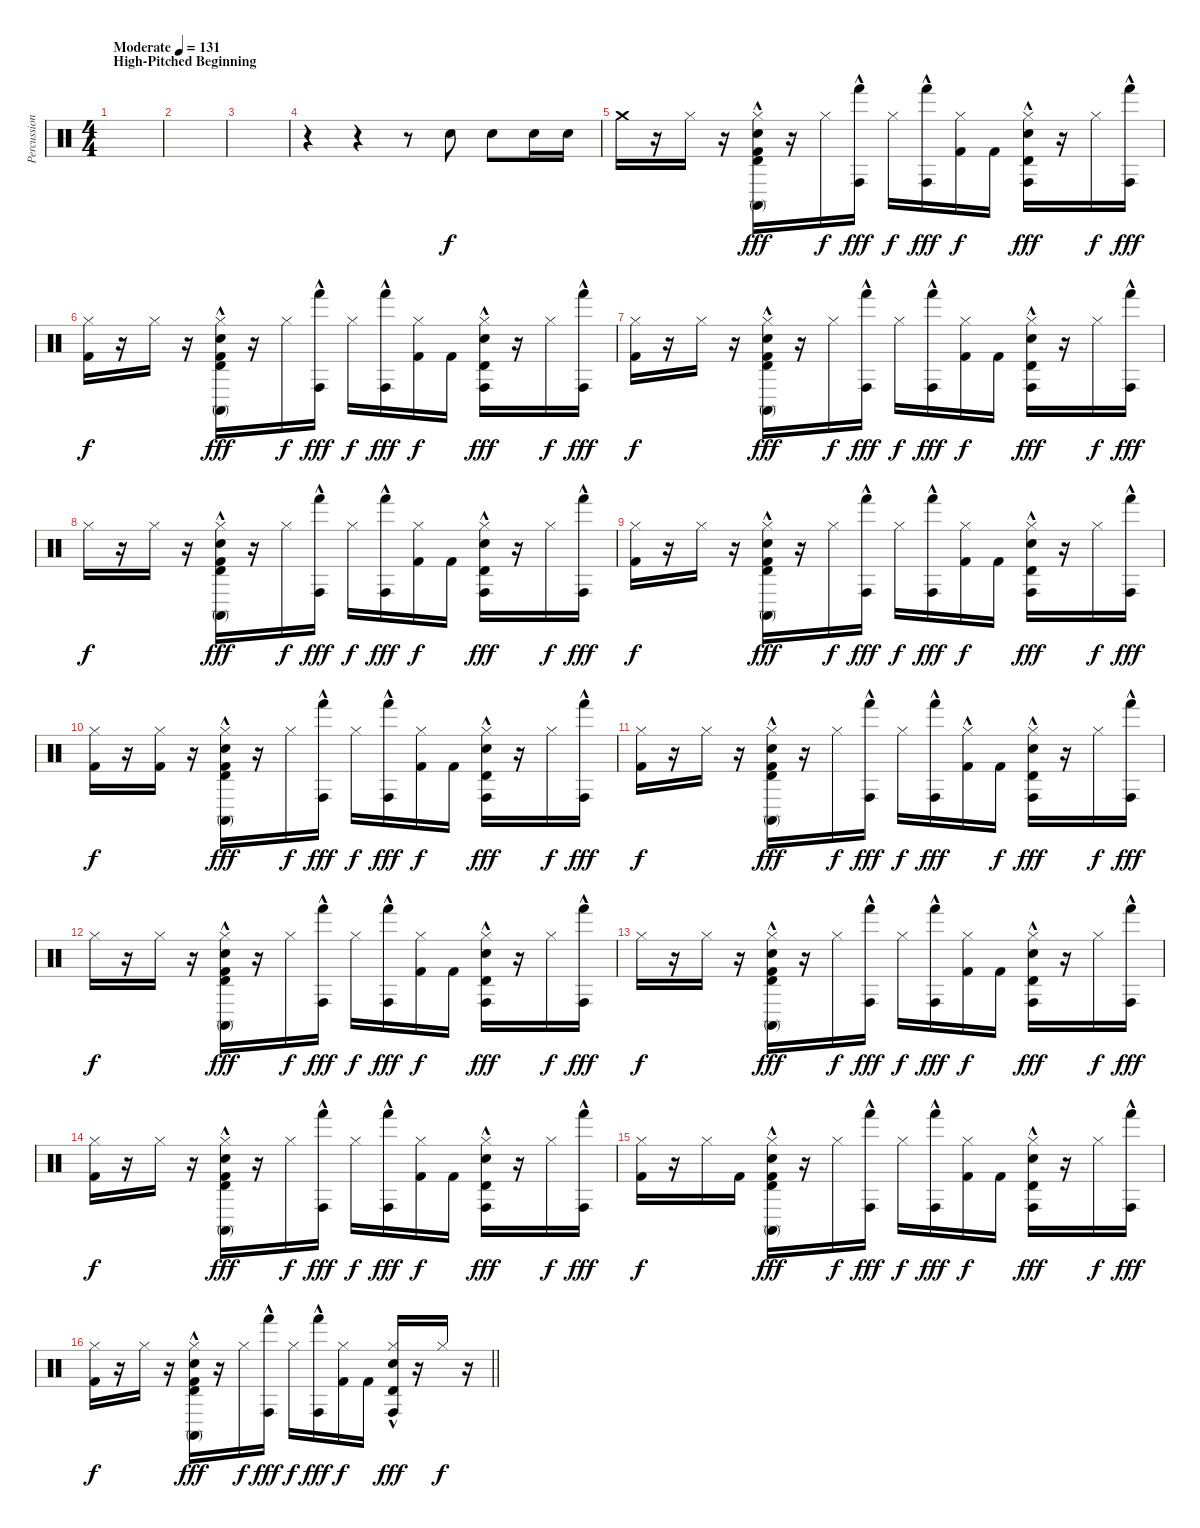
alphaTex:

\track ("Percussion" "Percussion") {instrument percussion}
\staff {score}
\articulation defaults
\ts (4 4)
\section ("" "High-Pitched Beginning")
\tempo (131 "Moderate")
\clef neutral
\ks c
|
|
|
r.4 r.4 r.8 "Electric Snare (hit)".8 "Electric Snare (hit)".8 "Electric Snare (hit)".16 "Electric Snare (hit)".16 |
"Crash medium (hit)".16 r.16 "Hi-Hat (closed)".16 r.16 ("Hi-Hat (closed)" "Conga high (mute)"{hac} "Timbale high (hit)" "Electric Snare (hit)" "Kick (hit) 2").16{dy fff} r.16 "Hi-Hat (closed)".16{dy f} ("Conga high (hit)"{hac} "Hand (hit)"{hac}).16{dy fff} "Hi-Hat (closed)".16{dy f} ("Conga high (hit)"{hac} "Hand (hit)"{hac}).16{dy fff} ("Hi-Hat (closed)" "Kick (hit) 2").16{dy f} "Kick (hit) 2".16 ("Hi-Hat (closed)" "Conga high (hit)"{hac} "Timbale high (hit)" "Electric Snare (hit)").16{dy fff} r.16 "Hi-Hat (closed)".16{dy f} ("Conga high (hit)"{hac} "Hand (hit)"{hac}).16{dy fff} |
("Hi-Hat (closed)" "Kick (hit) 2").16{dy f} r.16 "Hi-Hat (closed)".16 r.16 ("Hi-Hat (closed)" "Conga high (mute)"{hac} "Timbale high (hit)" "Electric Snare (hit)" "Kick (hit) 2").16{dy fff} r.16 "Hi-Hat (closed)".16{dy f} ("Conga high (hit)"{hac} "Hand (hit)"{hac}).16{dy fff} "Hi-Hat (closed)".16{dy f} ("Conga high (hit)"{hac} "Hand (hit)"{hac}).16{dy fff} ("Hi-Hat (closed)" "Kick (hit) 2").16{dy f} "Kick (hit) 2".16 ("Hi-Hat (closed)" "Conga high (hit)"{hac} "Timbale high (hit)" "Electric Snare (hit)").16{dy fff} r.16 "Hi-Hat (closed)".16{dy f} ("Conga high (hit)"{hac} "Hand (hit)"{hac}).16{dy fff} |
("Hi-Hat (closed)" "Kick (hit) 2").16{dy f} r.16 "Hi-Hat (closed)".16 r.16 ("Hi-Hat (closed)" "Conga high (mute)"{hac} "Timbale high (hit)" "Electric Snare (hit)" "Kick (hit) 2").16{dy fff} r.16 "Hi-Hat (closed)".16{dy f} ("Conga high (hit)"{hac} "Hand (hit)"{hac}).16{dy fff} "Hi-Hat (closed)".16{dy f} ("Conga high (hit)"{hac} "Hand (hit)"{hac}).16{dy fff} ("Hi-Hat (closed)" "Kick (hit) 2").16{dy f} "Kick (hit) 2".16 ("Hi-Hat (closed)" "Conga high (hit)"{hac} "Timbale high (hit)" "Electric Snare (hit)").16{dy fff} r.16 "Hi-Hat (closed)".16{dy f} ("Conga high (hit)"{hac} "Hand (hit)"{hac}).16{dy fff} |
"Hi-Hat (closed)".16{dy f} r.16 "Hi-Hat (closed)".16 r.16 ("Hi-Hat (closed)" "Conga high (mute)"{hac} "Timbale high (hit)" "Electric Snare (hit)" "Kick (hit) 2").16{dy fff} r.16 "Hi-Hat (closed)".16{dy f} ("Conga high (hit)"{hac} "Hand (hit)"{hac}).16{dy fff} "Hi-Hat (closed)".16{dy f} ("Conga high (hit)"{hac} "Hand (hit)"{hac}).16{dy fff} ("Hi-Hat (closed)" "Kick (hit) 2").16{dy f} "Kick (hit) 2".16 ("Hi-Hat (closed)" "Conga high (hit)"{hac} "Timbale high (hit)" "Electric Snare (hit)").16{dy fff} r.16 "Hi-Hat (closed)".16{dy f} ("Conga high (hit)"{hac} "Hand (hit)"{hac}).16{dy fff} |
("Hi-Hat (closed)" "Kick (hit) 2").16{dy f} r.16 "Hi-Hat (closed)".16 r.16 ("Hi-Hat (closed)" "Conga high (mute)"{hac} "Timbale high (hit)" "Electric Snare (hit)" "Kick (hit) 2").16{dy fff} r.16 "Hi-Hat (closed)".16{dy f} ("Conga high (hit)"{hac} "Hand (hit)"{hac}).16{dy fff} "Hi-Hat (closed)".16{dy f} ("Conga high (hit)"{hac} "Hand (hit)"{hac}).16{dy fff} ("Hi-Hat (closed)" "Kick (hit) 2").16{dy f} "Kick (hit) 2".16 ("Hi-Hat (closed)" "Conga high (hit)"{hac} "Timbale high (hit)" "Electric Snare (hit)").16{dy fff} r.16 "Hi-Hat (closed)".16{dy f} ("Conga high (hit)"{hac} "Hand (hit)"{hac}).16{dy fff} |
("Hi-Hat (closed)" "Kick (hit) 2").16{dy f} r.16 ("Hi-Hat (closed)" "Kick (hit) 2").16 r.16 ("Hi-Hat (closed)" "Conga high (mute)"{hac} "Timbale high (hit)" "Electric Snare (hit)" "Kick (hit) 2").16{dy fff} r.16 "Hi-Hat (closed)".16{dy f} ("Conga high (hit)"{hac} "Hand (hit)"{hac}).16{dy fff} "Hi-Hat (closed)".16{dy f} ("Conga high (hit)"{hac} "Hand (hit)"{hac}).16{dy fff} ("Hi-Hat (closed)" "Kick (hit) 2").16{dy f} "Kick (hit) 2".16 ("Hi-Hat (closed)" "Conga high (hit)"{hac} "Timbale high (hit)" "Electric Snare (hit)").16{dy fff} r.16 "Hi-Hat (closed)".16{dy f} ("Conga high (hit)"{hac} "Hand (hit)"{hac}).16{dy fff} |
("Hi-Hat (closed)" "Kick (hit) 2").16{dy f} r.16 "Hi-Hat (closed)".16 r.16 ("Hi-Hat (closed)" "Conga high (mute)"{hac} "Timbale high (hit)" "Electric Snare (hit)" "Kick (hit) 2").16{dy fff} r.16 "Hi-Hat (closed)".16{dy f} ("Conga high (hit)"{hac} "Hand (hit)"{hac}).16{dy fff} "Hi-Hat (closed)".16{dy f} ("Conga high (hit)"{hac} "Hand (hit)"{hac}).16{dy fff} ("Hi-Hat (closed)" "Kick (hit) 2"{hac}).16 "Kick (hit) 2".16{dy f} ("Hi-Hat (closed)" "Conga high (hit)"{hac} "Timbale high (hit)" "Electric Snare (hit)").16{dy fff} r.16 "Hi-Hat (closed)".16{dy f} ("Conga high (hit)"{hac} "Hand (hit)"{hac}).16{dy fff} |
"Hi-Hat (closed)".16{dy f} r.16 "Hi-Hat (closed)".16 r.16 ("Hi-Hat (closed)" "Conga high (mute)"{hac} "Timbale high (hit)" "Electric Snare (hit)" "Kick (hit) 2").16{dy fff} r.16 "Hi-Hat (closed)".16{dy f} ("Conga high (hit)"{hac} "Hand (hit)"{hac}).16{dy fff} "Hi-Hat (closed)".16{dy f} ("Conga high (hit)"{hac} "Hand (hit)"{hac}).16{dy fff} ("Hi-Hat (closed)" "Kick (hit) 2").16{dy f} "Kick (hit) 2".16 ("Hi-Hat (closed)" "Conga high (hit)"{hac} "Timbale high (hit)" "Electric Snare (hit)").16{dy fff} r.16 "Hi-Hat (closed)".16{dy f} ("Conga high (hit)"{hac} "Hand (hit)"{hac}).16{dy fff} |
"Hi-Hat (closed)".16{dy f} r.16 "Hi-Hat (closed)".16 r.16 ("Hi-Hat (closed)" "Conga high (mute)"{hac} "Timbale high (hit)" "Electric Snare (hit)" "Kick (hit) 2").16{dy fff} r.16 "Hi-Hat (closed)".16{dy f} ("Conga high (hit)"{hac} "Hand (hit)"{hac}).16{dy fff} "Hi-Hat (closed)".16{dy f} ("Conga high (hit)"{hac} "Hand (hit)"{hac}).16{dy fff} ("Hi-Hat (closed)" "Kick (hit) 2").16{dy f} "Kick (hit) 2".16 ("Hi-Hat (closed)" "Conga high (hit)"{hac} "Timbale high (hit)" "Electric Snare (hit)").16{dy fff} r.16 "Hi-Hat (closed)".16{dy f} ("Conga high (hit)"{hac} "Hand (hit)"{hac}).16{dy fff} |
("Hi-Hat (closed)" "Kick (hit) 2").16{dy f} r.16 "Hi-Hat (closed)".16 r.16 ("Hi-Hat (closed)" "Conga high (mute)"{hac} "Timbale high (hit)" "Electric Snare (hit)" "Kick (hit) 2").16{dy fff} r.16 "Hi-Hat (closed)".16{dy f} ("Conga high (hit)"{hac} "Hand (hit)"{hac}).16{dy fff} "Hi-Hat (closed)".16{dy f} ("Conga high (hit)"{hac} "Hand (hit)"{hac}).16{dy fff} ("Hi-Hat (closed)" "Kick (hit) 2").16{dy f} "Kick (hit) 2".16 ("Hi-Hat (closed)" "Conga high (hit)"{hac} "Timbale high (hit)" "Electric Snare (hit)").16{dy fff} r.16 "Hi-Hat (closed)".16{dy f} ("Conga high (hit)"{hac} "Hand (hit)"{hac}).16{dy fff} |
("Hi-Hat (closed)" "Kick (hit) 2").16{dy f} r.16 "Hi-Hat (closed)".16 "Kick (hit) 2".16 ("Hi-Hat (closed)" "Conga high (mute)"{hac} "Timbale high (hit)" "Electric Snare (hit)" "Kick (hit) 2").16{dy fff} r.16 "Hi-Hat (closed)".16{dy f} ("Conga high (hit)"{hac} "Hand (hit)"{hac}).16{dy fff} "Hi-Hat (closed)".16{dy f} ("Conga high (hit)"{hac} "Hand (hit)"{hac}).16{dy fff} ("Hi-Hat (closed)" "Kick (hit) 2").16{dy f} "Kick (hit) 2".16 ("Hi-Hat (closed)" "Conga high (hit)"{hac} "Timbale high (hit)" "Electric Snare (hit)").16{dy fff} r.16 "Hi-Hat (closed)".16{dy f} ("Conga high (hit)"{hac} "Hand (hit)"{hac}).16{dy fff} |
\barLineRight lightlight
("Hi-Hat (closed)" "Kick (hit) 2").16{dy f} r.16 "Hi-Hat (closed)".16 r.16 ("Hi-Hat (closed)" "Conga high (mute)"{hac} "Timbale high (hit)" "Electric Snare (hit)" "Kick (hit) 2").16{dy fff} r.16 "Hi-Hat (closed)".16{dy f} ("Conga high (hit)"{hac} "Hand (hit)"{hac}).16{dy fff} "Hi-Hat (closed)".16{dy f} ("Conga high (hit)"{hac} "Hand (hit)"{hac}).16{dy fff} ("Hi-Hat (closed)" "Kick (hit) 2").16{dy f} "Kick (hit) 2".16 ("Hi-Hat (closed)" "Conga high (hit)"{hac} "Timbale high (hit)" "Electric Snare (hit)").16{dy fff} r.16 "Hi-Hat (closed)".16{dy f} r.16
